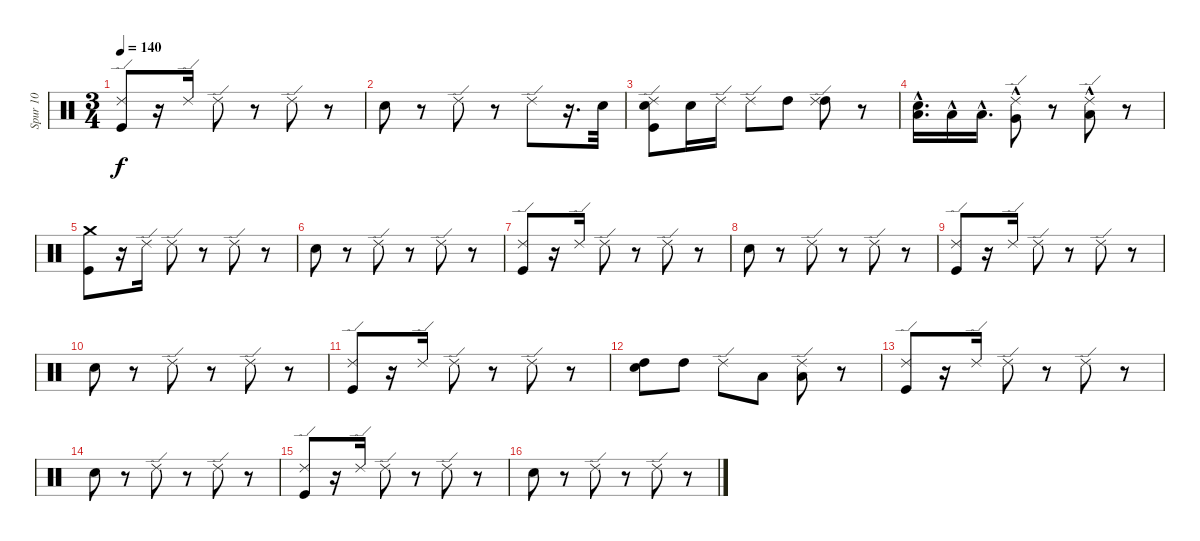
\track ("Spur 10" "Spur 10") {instrument percussion}
\staff {score}
\articulation defaults
\ts (3 4)
\tempo 140
\clef neutral
\ks c
("Ride (edge) 2" "Kick (hit)").8{dy f} r.16 "Ride (edge) 2".16 "Ride (edge) 2".8 r.8 "Ride (edge) 2".8 r.8 |
"Snare (hit) 2".8 r.8 "Ride (edge) 2".8 r.8 "Ride (edge) 2".8 r.16{d} "Snare (hit) 2".32 |
("Snare (hit) 2" "Ride (edge) 2" "Kick (hit)").8 "Snare (hit) 2".16 "Ride (edge) 2".16 "Ride (edge) 2".8 "High Tom (hit)".8 ("High Tom (hit)" "Ride (edge) 2").8 r.8 |
("Low Tom (hit)"{hac} "Snare (hit) 2").16{d} "Low Tom (hit)"{hac}.16 "Low Tom (hit)"{hac}.16{d} ("Very Low Tom (hit)"{hac} "Ride (edge) 2").8 r.8 ("Low Floor Tom (hit)"{hac} "Ride (edge) 2").8 r.8 |
("Kick (hit)" "Crash medium (hit)").8 r.16 "Ride (edge) 2".16 "Ride (edge) 2".8 r.8 "Ride (edge) 2".8 r.8 |
"Snare (hit) 2".8 r.8 "Ride (edge) 2".8 r.8 "Ride (edge) 2".8 r.8 |
("Ride (edge) 2" "Kick (hit)").8 r.16 "Ride (edge) 2".16 "Ride (edge) 2".8 r.8 "Ride (edge) 2".8 r.8 |
"Snare (hit) 2".8 r.8 "Ride (edge) 2".8 r.8 "Ride (edge) 2".8 r.8 |
("Ride (edge) 2" "Kick (hit)").8 r.16 "Ride (edge) 2".16 "Ride (edge) 2".8 r.8 "Ride (edge) 2".8 r.8 |
"Snare (hit) 2".8 r.8 "Ride (edge) 2".8 r.8 "Ride (edge) 2".8 r.8 |
("Ride (edge) 2" "Kick (hit)").8 r.16 "Ride (edge) 2".16 "Ride (edge) 2".8 r.8 "Ride (edge) 2".8 r.8 |
("High Tom (hit)" "Snare (hit) 2").8 "High Tom (hit)".8 "Ride (edge) 2".8 "Low Tom (hit)".8 ("Low Tom (hit)" "Ride (edge) 2").8 r.8 |
("Ride (edge) 2" "Kick (hit)").8 r.16 "Ride (edge) 2".16 "Ride (edge) 2".8 r.8 "Ride (edge) 2".8 r.8 |
"Snare (hit) 2".8 r.8 "Ride (edge) 2".8 r.8 "Ride (edge) 2".8 r.8 |
("Ride (edge) 2" "Kick (hit)").8 r.16 "Ride (edge) 2".16 "Ride (edge) 2".8 r.8 "Ride (edge) 2".8 r.8 |
"Snare (hit) 2".8 r.8 "Ride (edge) 2".8 r.8 "Ride (edge) 2".8 r.8
